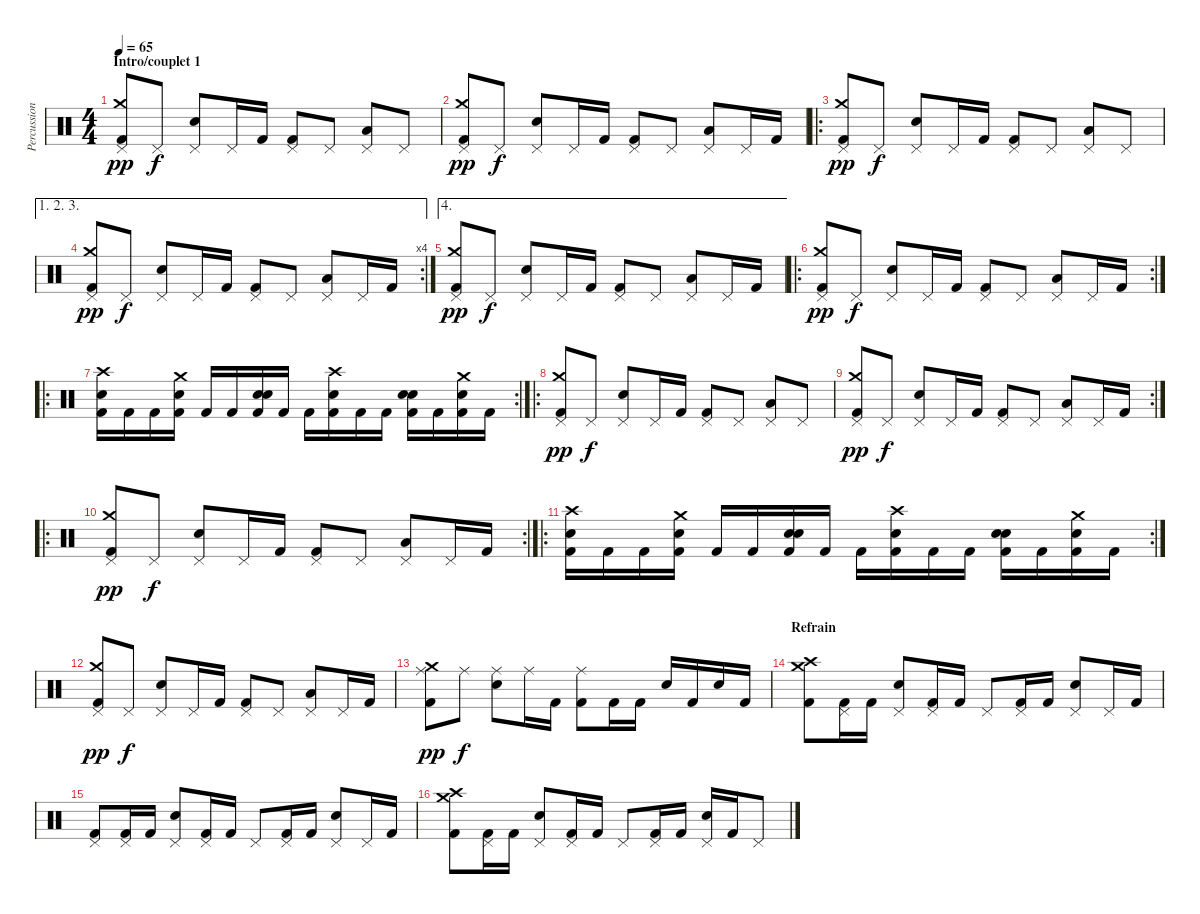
\track ("Percussions" "Percussion") {instrument percussion}
\staff {score}
\articulation defaults
\ts (4 4)
\section ("" "Intro/couplet 1")
\tempo 65
\clef neutral
\ks c
("Pedal Hi-Hat (hit)" "Crash medium (hit)" "Kick (hit) 2").8{dy pp} "Pedal Hi-Hat (hit)".8{dy f} ("Pedal Hi-Hat (hit)" "Electric Snare (hit)").8 "Pedal Hi-Hat (hit)".16 "Kick (hit) 2".16 ("Pedal Hi-Hat (hit)" "Kick (hit) 2").8 "Pedal Hi-Hat (hit)".8 ("Pedal Hi-Hat (hit)" "Low Tom (hit)").8 "Pedal Hi-Hat (hit)".8 |
("Pedal Hi-Hat (hit)" "Crash medium (hit)" "Kick (hit) 2").8{dy pp} "Pedal Hi-Hat (hit)".8{dy f} ("Pedal Hi-Hat (hit)" "Electric Snare (hit)").8 "Pedal Hi-Hat (hit)".16 "Kick (hit) 2".16 ("Pedal Hi-Hat (hit)" "Kick (hit) 2").8 "Pedal Hi-Hat (hit)".8 ("Pedal Hi-Hat (hit)" "Low Tom (hit)").8 "Pedal Hi-Hat (hit)".16 "Kick (hit) 2".16 |
\ro
("Pedal Hi-Hat (hit)" "Crash medium (hit)" "Kick (hit) 2").8{dy pp} "Pedal Hi-Hat (hit)".8{dy f} ("Pedal Hi-Hat (hit)" "Electric Snare (hit)").8 "Pedal Hi-Hat (hit)".16 "Kick (hit) 2".16 ("Pedal Hi-Hat (hit)" "Kick (hit) 2").8 "Pedal Hi-Hat (hit)".8 ("Pedal Hi-Hat (hit)" "Low Tom (hit)").8 "Pedal Hi-Hat (hit)".8 |
\ae (1 2 3)
\rc 4
("Pedal Hi-Hat (hit)" "Crash medium (hit)" "Kick (hit) 2").8{dy pp} "Pedal Hi-Hat (hit)".8{dy f} ("Pedal Hi-Hat (hit)" "Electric Snare (hit)").8 "Pedal Hi-Hat (hit)".16 "Kick (hit) 2".16 ("Pedal Hi-Hat (hit)" "Kick (hit) 2").8 "Pedal Hi-Hat (hit)".8 ("Pedal Hi-Hat (hit)" "Low Tom (hit)").8 "Pedal Hi-Hat (hit)".16 "Kick (hit) 2".16 |
\ae 4
("Pedal Hi-Hat (hit)" "Crash medium (hit)" "Kick (hit) 2").8{dy pp} "Pedal Hi-Hat (hit)".8{dy f} ("Pedal Hi-Hat (hit)" "Electric Snare (hit)").8 "Pedal Hi-Hat (hit)".16 "Kick (hit) 2".16 ("Pedal Hi-Hat (hit)" "Kick (hit) 2").8 "Pedal Hi-Hat (hit)".8 ("Pedal Hi-Hat (hit)" "Low Tom (hit)").8 "Pedal Hi-Hat (hit)".16 "Kick (hit) 2".16 |
\ro
\rc 2
("Pedal Hi-Hat (hit)" "Crash medium (hit)" "Kick (hit) 2").8{dy pp} "Pedal Hi-Hat (hit)".8{dy f} ("Pedal Hi-Hat (hit)" "Electric Snare (hit)").8 "Pedal Hi-Hat (hit)".16 "Kick (hit) 2".16 ("Pedal Hi-Hat (hit)" "Kick (hit) 2").8 "Pedal Hi-Hat (hit)".8 ("Pedal Hi-Hat (hit)" "Low Tom (hit)").8 "Pedal Hi-Hat (hit)".16 "Kick (hit) 2".16 |
\ro
\rc 2
("Crash high (hit)" "Electric Snare (hit)" "Kick (hit) 2").16 "Kick (hit) 2".16 "Kick (hit) 2".16 ("Crash medium (hit)" "Electric Snare (hit)" "Kick (hit) 2").16 "Kick (hit) 2".16 "Kick (hit) 2".16 ("Snare (hit) 2" "Electric Snare (hit)" "Kick (hit) 2").16 "Kick (hit) 2".16 "Kick (hit) 2".16 ("Crash high (hit)" "Electric Snare (hit)" "Kick (hit) 2").16 "Kick (hit) 2".16 "Kick (hit) 2".16 ("Snare (hit) 2" "Electric Snare (hit)" "Kick (hit) 2").16 "Kick (hit) 2".16 ("Crash medium (hit)" "Electric Snare (hit)" "Kick (hit) 2").16 "Kick (hit) 2".16 |
\ro
("Pedal Hi-Hat (hit)" "Crash medium (hit)" "Kick (hit) 2").8{dy pp} "Pedal Hi-Hat (hit)".8{dy f} ("Pedal Hi-Hat (hit)" "Electric Snare (hit)").8 "Pedal Hi-Hat (hit)".16 "Kick (hit) 2".16 ("Pedal Hi-Hat (hit)" "Kick (hit) 2").8 "Pedal Hi-Hat (hit)".8 ("Pedal Hi-Hat (hit)" "Low Tom (hit)").8 "Pedal Hi-Hat (hit)".8 |
\rc 2
("Pedal Hi-Hat (hit)" "Crash medium (hit)" "Kick (hit) 2").8{dy pp} "Pedal Hi-Hat (hit)".8{dy f} ("Pedal Hi-Hat (hit)" "Electric Snare (hit)").8 "Pedal Hi-Hat (hit)".16 "Kick (hit) 2".16 ("Pedal Hi-Hat (hit)" "Kick (hit) 2").8 "Pedal Hi-Hat (hit)".8 ("Pedal Hi-Hat (hit)" "Low Tom (hit)").8 "Pedal Hi-Hat (hit)".16 "Kick (hit) 2".16 |
\ro
\rc 2
("Pedal Hi-Hat (hit)" "Crash medium (hit)" "Kick (hit) 2").8{dy pp} "Pedal Hi-Hat (hit)".8{dy f} ("Pedal Hi-Hat (hit)" "Electric Snare (hit)").8 "Pedal Hi-Hat (hit)".16 "Kick (hit) 2".16 ("Pedal Hi-Hat (hit)" "Kick (hit) 2").8 "Pedal Hi-Hat (hit)".8 ("Pedal Hi-Hat (hit)" "Low Tom (hit)").8 "Pedal Hi-Hat (hit)".16 "Kick (hit) 2".16 |
\ro
\rc 2
("Crash high (hit)" "Electric Snare (hit)" "Kick (hit) 2").16 "Kick (hit) 2".16 "Kick (hit) 2".16 ("Crash medium (hit)" "Electric Snare (hit)" "Kick (hit) 2").16 "Kick (hit) 2".16 "Kick (hit) 2".16 ("Snare (hit) 2" "Electric Snare (hit)" "Kick (hit) 2").16 "Kick (hit) 2".16 "Kick (hit) 2".16 ("Crash high (hit)" "Electric Snare (hit)" "Kick (hit) 2").16 "Kick (hit) 2".16 "Kick (hit) 2".16 ("Snare (hit) 2" "Electric Snare (hit)" "Kick (hit) 2").16 "Kick (hit) 2".16 ("Crash medium (hit)" "Electric Snare (hit)" "Kick (hit) 2").16 "Kick (hit) 2".16 |
("Pedal Hi-Hat (hit)" "Crash medium (hit)" "Kick (hit) 2").8{dy pp} "Pedal Hi-Hat (hit)".8{dy f} ("Pedal Hi-Hat (hit)" "Electric Snare (hit)").8 "Pedal Hi-Hat (hit)".16 "Kick (hit) 2".16 ("Pedal Hi-Hat (hit)" "Kick (hit) 2").8 "Pedal Hi-Hat (hit)".8 ("Pedal Hi-Hat (hit)" "Low Tom (hit)").8 "Pedal Hi-Hat (hit)".16 "Kick (hit) 2".16 |
("Ride (middle)" "Crash medium (hit)" "Kick (hit) 2").8{dy pp} "Ride (middle)".8{dy f} ("Ride (middle)" "Electric Snare (hit)").8 "Ride (middle)".16 "Kick (hit) 2".16 ("Ride (middle)" "Kick (hit) 2").8 "Kick (hit) 2".16 "Kick (hit) 2".16 "Snare (hit) 2".16 "Kick (hit) 2".16 "Snare (hit) 2".16 "Kick (hit) 2".16 |
\section ("" "Refrain")
("Crash high (hit)" "Crash medium (hit)" "Kick (hit) 2").8 ("Pedal Hi-Hat (hit)" "Kick (hit) 2").16 "Kick (hit) 2".16 ("Pedal Hi-Hat (hit)" "Electric Snare (hit)").8 ("Pedal Hi-Hat (hit)" "Kick (hit) 2").16 "Kick (hit) 2".16 "Pedal Hi-Hat (hit)".8 ("Pedal Hi-Hat (hit)" "Kick (hit) 2").16 "Kick (hit) 2".16 ("Pedal Hi-Hat (hit)" "Electric Snare (hit)").8 "Pedal Hi-Hat (hit)".16 "Kick (hit) 2".16 |
("Pedal Hi-Hat (hit)" "Kick (hit) 2").8 ("Pedal Hi-Hat (hit)" "Kick (hit) 2").16 "Kick (hit) 2".16 ("Pedal Hi-Hat (hit)" "Electric Snare (hit)").8 ("Pedal Hi-Hat (hit)" "Kick (hit) 2").16 "Kick (hit) 2".16 "Pedal Hi-Hat (hit)".8 ("Pedal Hi-Hat (hit)" "Kick (hit) 2").16 "Kick (hit) 2".16 ("Pedal Hi-Hat (hit)" "Electric Snare (hit)").8 "Pedal Hi-Hat (hit)".16 "Kick (hit) 2".16 |
("Crash high (hit)" "Crash medium (hit)" "Kick (hit) 2").8 ("Pedal Hi-Hat (hit)" "Kick (hit) 2").16 "Kick (hit) 2".16 ("Pedal Hi-Hat (hit)" "Electric Snare (hit)").8 ("Pedal Hi-Hat (hit)" "Kick (hit) 2").16 "Kick (hit) 2".16 "Pedal Hi-Hat (hit)".8 ("Pedal Hi-Hat (hit)" "Kick (hit) 2").16 "Kick (hit) 2".16 ("Pedal Hi-Hat (hit)" "Electric Snare (hit)").16 "Kick (hit) 2".16 "Pedal Hi-Hat (hit)".8
